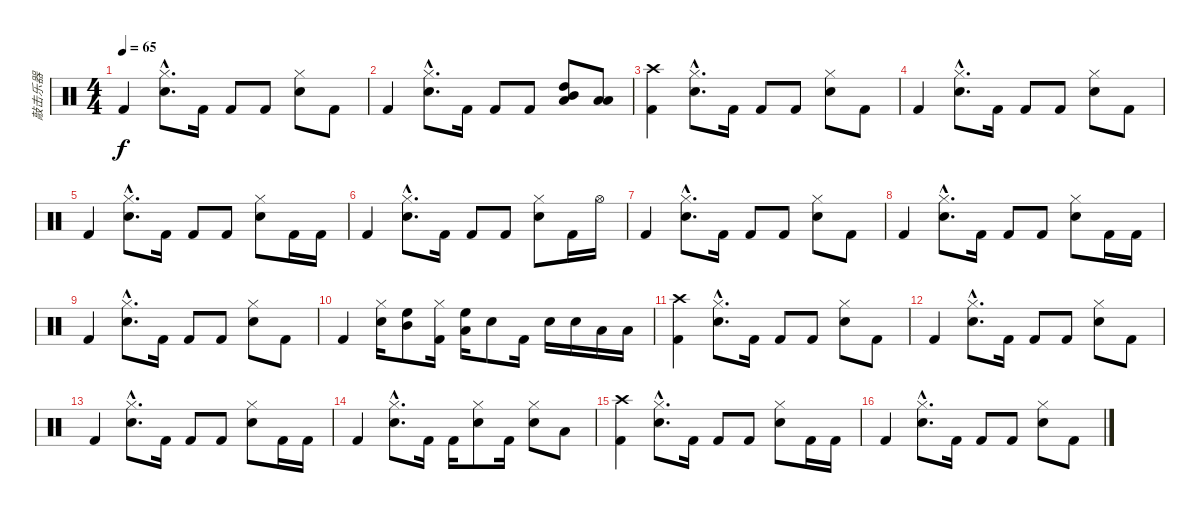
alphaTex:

\track ("敲击乐器" "敲击乐器") {instrument percussion}
\staff {score}
\articulation defaults
\ts (4 4)
\tempo 65
\clef neutral
\ks c "Kick (hit) 2".4{dy f}
("Hi-Hat (closed)"{hac} "Snare (hit) 2"{hac}).8{d} "Kick (hit) 2".16 "Kick (hit) 2".8 "Kick (hit) 2".8 ("Hi-Hat (closed)" "Snare (hit) 2").8 "Kick (hit) 2".8 |
"Kick (hit) 2".4 ("Hi-Hat (closed)"{hac} "Electric Snare (hit)"{hac}).8{d} "Kick (hit) 2".16 "Kick (hit) 2".8 "Kick (hit) 2".8 ("Mid Tom (hit)" "High Tom (hit)" "Low Tom (hit)").8 ("Low Tom (hit)" "Low Floor Tom (hit)").8 |
("Crash high (hit)" "Kick (hit) 2").4 ("Hi-Hat (closed)"{hac} "Electric Snare (hit)"{hac}).8{d} "Kick (hit) 2".16 "Kick (hit) 2".8 "Kick (hit) 2".8 ("Hi-Hat (closed)" "Electric Snare (hit)").8 "Kick (hit) 2".8 |
"Kick (hit) 2".4 ("Hi-Hat (closed)"{hac} "Electric Snare (hit)"{hac}).8{d} "Kick (hit) 2".16 "Kick (hit) 2".8 "Kick (hit) 2".8 ("Hi-Hat (closed)" "Electric Snare (hit)").8 "Kick (hit) 2".8 |
"Kick (hit) 2".4 ("Hi-Hat (closed)"{hac} "Electric Snare (hit)"{hac}).8{d} "Kick (hit) 2".16 "Kick (hit) 2".8 "Kick (hit) 2".8 ("Hi-Hat (closed)" "Electric Snare (hit)").8 "Kick (hit) 2".16 "Kick (hit) 2".16 |
"Kick (hit) 2".4 ("Hi-Hat (closed)"{hac} "Electric Snare (hit)"{hac}).8{d} "Kick (hit) 2".16 "Kick (hit) 2".8 "Kick (hit) 2".8 ("Hi-Hat (closed)" "Electric Snare (hit)").8 "Kick (hit) 2".16 "Hi-Hat (open)".16 |
"Kick (hit) 2".4 ("Hi-Hat (closed)"{hac} "Electric Snare (hit)"{hac}).8{d} "Kick (hit) 2".16 "Kick (hit) 2".8 "Kick (hit) 2".8 ("Hi-Hat (closed)" "Electric Snare (hit)").8 "Kick (hit) 2".8 |
"Kick (hit) 2".4 ("Hi-Hat (closed)"{hac} "Electric Snare (hit)"{hac}).8{d} "Kick (hit) 2".16 "Kick (hit) 2".8 "Kick (hit) 2".8 ("Hi-Hat (closed)" "Electric Snare (hit)").8 "Kick (hit) 2".16 "Kick (hit) 2".16 |
"Kick (hit) 2".4 ("Hi-Hat (closed)"{hac} "Electric Snare (hit)"{hac}).8{d} "Kick (hit) 2".16 "Kick (hit) 2".8 "Kick (hit) 2".8 ("Hi-Hat (closed)" "Electric Snare (hit)").8 "Kick (hit) 2".8 |
"Kick (hit) 2".4 ("Hi-Hat (closed)" "Electric Snare (hit)").16 ("Mid Tom (hit)" "High Floor Tom (hit)").8 ("Hi-Hat (closed)" "Kick (hit) 2").16 ("High Floor Tom (hit)" "Low Floor Tom (hit)").16 "Snare (hit) 2".8 "Kick (hit) 2".16 "Electric Snare (hit)".16 "Snare (hit) 2".16 "Low Tom (hit)".16 "Low Floor Tom (hit)".16 |
("Crash high (hit)" "Kick (hit) 2").4 ("Hi-Hat (closed)"{hac} "Electric Snare (hit)"{hac}).8{d} "Kick (hit) 2".16 "Kick (hit) 2".8 "Kick (hit) 2".8 ("Hi-Hat (closed)" "Electric Snare (hit)").8 "Kick (hit) 2".8 |
"Kick (hit) 2".4 ("Hi-Hat (closed)"{hac} "Electric Snare (hit)"{hac}).8{d} "Kick (hit) 2".16 "Kick (hit) 2".8 "Kick (hit) 2".8 ("Hi-Hat (closed)" "Electric Snare (hit)").8 "Kick (hit) 2".8 |
"Kick (hit) 2".4 ("Hi-Hat (closed)"{hac} "Electric Snare (hit)"{hac}).8{d} "Kick (hit) 2".16 "Kick (hit) 2".8 "Kick (hit) 2".8 ("Hi-Hat (closed)" "Electric Snare (hit)").8 "Kick (hit) 2".16 "Kick (hit) 2".16 |
"Kick (hit) 2".4 ("Hi-Hat (closed)"{hac} "Electric Snare (hit)"{hac}).8{d} "Kick (hit) 2".16 "Kick (hit) 2".16 ("Snare (hit) 2" "Hi-Hat (closed)").8 "Kick (hit) 2".16 ("Hi-Hat (closed)" "Snare (hit) 2").8 "Low Tom (hit)".8 |
("Crash high (hit)" "Kick (hit) 2").4 ("Hi-Hat (closed)"{hac} "Snare (hit) 2"{hac}).8{d} "Kick (hit) 2".16 "Kick (hit) 2".8 "Kick (hit) 2".8 ("Hi-Hat (closed)" "Snare (hit) 2").8 "Kick (hit) 2".16 "Kick (hit) 2".16 |
"Kick (hit) 2".4 ("Hi-Hat (closed)"{hac} "Electric Snare (hit)"{hac}).8{d} "Kick (hit) 2".16 "Kick (hit) 2".8 "Kick (hit) 2".8 ("Hi-Hat (closed)" "Electric Snare (hit)").8 "Kick (hit) 2".8
